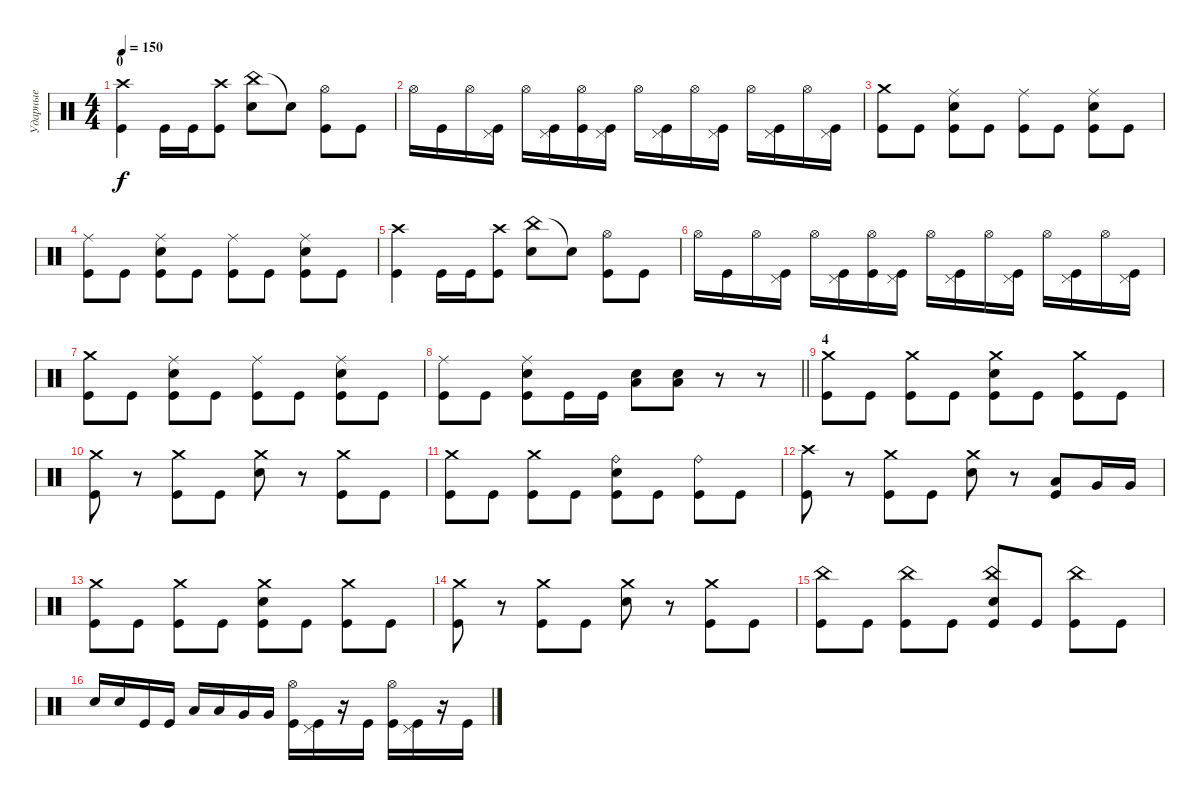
\track ("Ударные" "Ударные") {instrument percussion}
\staff {score}
\articulation defaults
\ts (4 4)
\section ("" "0")
\tempo 150
\clef neutral
\ks c
("Crash high (hit)" "Kick (hit)").4{dy f} "Kick (hit)".16 "Kick (hit)".16 ("Crash high (hit)" "Kick (hit)").8 ("China (hit)" "Electric Snare (hit)").8 "Snare (hit)"{t}.8 ("Hi-Hat (open)" "Kick (hit)").8 "Kick (hit)".8 |
"Hi-Hat (open)".16 "Kick (hit)".16 "Hi-Hat (open)".16 ("Pedal Hi-Hat (hit)" "Kick (hit)").16 "Hi-Hat (open)".16 ("Pedal Hi-Hat (hit)" "Kick (hit)").16 ("Hi-Hat (open)" "Kick (hit)").16 ("Pedal Hi-Hat (hit)" "Kick (hit)").16 "Hi-Hat (open)".16 ("Pedal Hi-Hat (hit)" "Kick (hit)").16 "Hi-Hat (open)".16 ("Pedal Hi-Hat (hit)" "Kick (hit)").16 "Hi-Hat (open)".16 ("Pedal Hi-Hat (hit)" "Kick (hit)").16 "Hi-Hat (open)".16 ("Pedal Hi-Hat (hit)" "Kick (hit)").16 |
("Crash medium (hit)" "Kick (hit)").8 "Kick (hit)".8 ("Ride (middle)" "Electric Snare (hit)" "Kick (hit)").8 "Kick (hit)".8 ("Ride (middle)" "Kick (hit)").8 "Kick (hit)".8 ("Ride (middle)" "Electric Snare (hit)" "Kick (hit)").8 "Kick (hit)".8 |
("Ride (middle)" "Kick (hit)").8 "Kick (hit)".8 ("Ride (middle)" "Electric Snare (hit)" "Kick (hit)").8 "Kick (hit)".8 ("Ride (middle)" "Kick (hit)").8 "Kick (hit)".8 ("Ride (middle)" "Electric Snare (hit)" "Kick (hit)").8 "Kick (hit)".8 |
("Crash high (hit)" "Kick (hit)").4 "Kick (hit)".16 "Kick (hit)".16 ("Crash high (hit)" "Kick (hit)").8 ("China (hit)" "Electric Snare (hit)").8 "Snare (hit)"{t}.8 ("Hi-Hat (open)" "Kick (hit)").8 "Kick (hit)".8 |
"Hi-Hat (open)".16 "Kick (hit)".16 "Hi-Hat (open)".16 ("Pedal Hi-Hat (hit)" "Kick (hit)").16 "Hi-Hat (open)".16 ("Pedal Hi-Hat (hit)" "Kick (hit)").16 ("Hi-Hat (open)" "Kick (hit)").16 ("Pedal Hi-Hat (hit)" "Kick (hit)").16 "Hi-Hat (open)".16 ("Pedal Hi-Hat (hit)" "Kick (hit)").16 "Hi-Hat (open)".16 ("Pedal Hi-Hat (hit)" "Kick (hit)").16 "Hi-Hat (open)".16 ("Pedal Hi-Hat (hit)" "Kick (hit)").16 "Hi-Hat (open)".16 ("Pedal Hi-Hat (hit)" "Kick (hit)").16 |
("Crash medium (hit)" "Kick (hit)").8 "Kick (hit)".8 ("Ride (middle)" "Electric Snare (hit)" "Kick (hit)").8 "Kick (hit)".8 ("Ride (middle)" "Kick (hit)").8 "Kick (hit)".8 ("Ride (middle)" "Electric Snare (hit)" "Kick (hit)").8 "Kick (hit)".8 |
\barLineRight lightlight
("Ride (middle)" "Kick (hit)").8 "Kick (hit)".8 ("Ride (middle)" "Electric Snare (hit)" "Kick (hit)").8 "Kick (hit)".16 "Kick (hit)".16 ("Low Floor Tom (hit)" "Electric Snare (hit)").8 ("Low Floor Tom (hit)" "Electric Snare (hit)").8 r.8 r.8 |
\section ("" "4")
("Crash medium (hit)" "Kick (hit)").8 "Kick (hit)".8 ("Crash medium (hit)" "Kick (hit)").8 "Kick (hit)".8 ("Crash medium (hit)" "Electric Snare (hit)" "Kick (hit)").8 "Kick (hit)".8 ("Crash medium (hit)" "Kick (hit)").8 "Kick (hit)".8 |
("Crash medium (hit)" "Kick (hit)").8 r.8 ("Crash medium (hit)" "Kick (hit)").8 "Kick (hit)".8 ("Crash medium (hit)" "Electric Snare (hit)").8 r.8 ("Crash medium (hit)" "Kick (hit)").8 "Kick (hit)".8 |
("Crash medium (hit)" "Kick (hit)").8 "Kick (hit)".8 ("Crash medium (hit)" "Kick (hit)").8 "Kick (hit)".8 ("Ride (bell)" "Electric Snare (hit)" "Kick (hit)").8 "Kick (hit)".8 ("Ride (bell)" "Kick (hit)").8 "Kick (hit)".8 |
("Crash high (hit)" "Kick (hit)").8 r.8 ("Crash medium (hit)" "Kick (hit)").8 "Kick (hit)".8 ("Crash medium (hit)" "Electric Snare (hit)").8 r.8 ("Low Tom (hit)" "Kick (hit)").8 "Very Low Tom (hit)".16 "Very Low Tom (hit)".16 |
("Crash medium (hit)" "Kick (hit)").8 "Kick (hit)".8 ("Crash medium (hit)" "Kick (hit)").8 "Kick (hit)".8 ("Crash medium (hit)" "Electric Snare (hit)" "Kick (hit)").8 "Kick (hit)".8 ("Crash medium (hit)" "Kick (hit)").8 "Kick (hit)".8 |
("Crash medium (hit)" "Kick (hit)").8 r.8 ("Crash medium (hit)" "Kick (hit)").8 "Kick (hit)".8 ("Crash medium (hit)" "Electric Snare (hit)").8 r.8 ("Crash medium (hit)" "Kick (hit)").8 "Kick (hit)".8 |
("China (hit)" "Kick (hit)").8 "Kick (hit)".8 ("China (hit)" "Kick (hit)").8 "Kick (hit)".8 ("China (hit)" "Electric Snare (hit)" "Kick (hit)").8 "Kick (hit)".8 ("China (hit)" "Kick (hit)").8 "Kick (hit)".8 |
"Electric Snare (hit)".16 "Electric Snare (hit)".16 "Kick (hit)".16 "Kick (hit)".16 "Low Tom (hit)".16 "Low Tom (hit)".16 "Very Low Tom (hit)".16 "Very Low Tom (hit)".16 ("Hi-Hat (open)" "Kick (hit)").16 ("Pedal Hi-Hat (hit)" "Kick (hit)").16 r.16 "Kick (hit)".16 ("Hi-Hat (open)" "Kick (hit)").16 ("Pedal Hi-Hat (hit)" "Kick (hit)").16 r.16 "Kick (hit)".16
